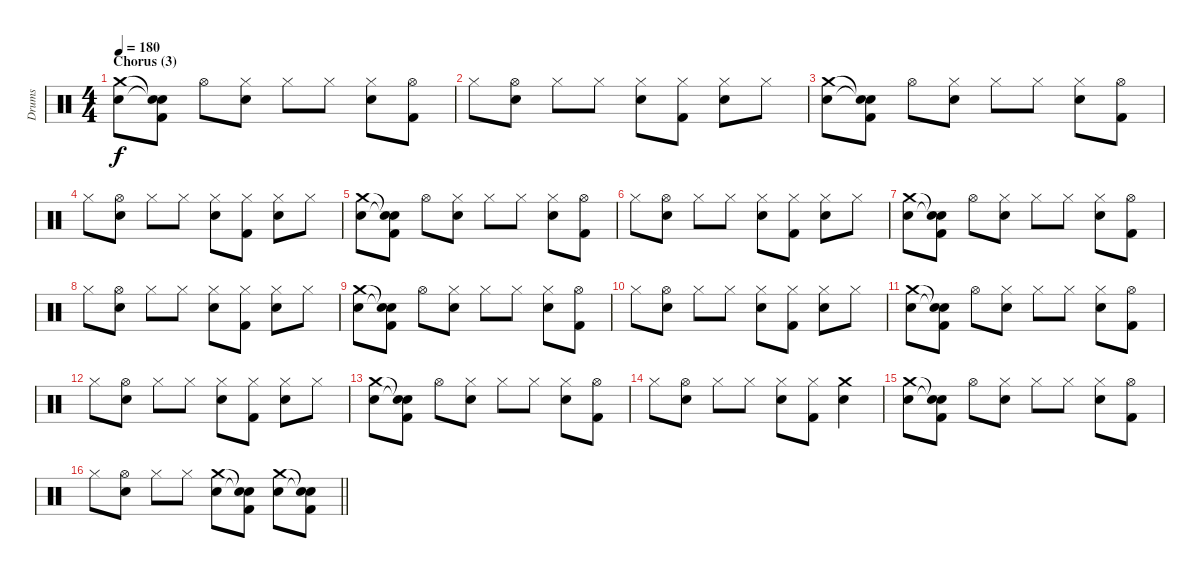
\track ("Drums" "Drums") {instrument percussion}
\staff {score}
\articulation defaults
\ts (4 4)
\section ("" "Chorus (3)")
\tempo 180
\clef neutral
\ks c
("Crash medium (hit)" "Electric Snare (hit)").8{dy f} ("Snare (hit)"{t} "Snare (hit)"{t} "Kick (hit) 2").8 "Hi-Hat (open)".8 ("Hi-Hat (closed)" "Electric Snare (hit)").8 "Hi-Hat (closed)".8 "Hi-Hat (closed)".8 ("Hi-Hat (closed)" "Electric Snare (hit)").8 ("Hi-Hat (open)" "Kick (hit) 2").8 |
"Hi-Hat (closed)".8 ("Hi-Hat (open)" "Electric Snare (hit)").8 "Hi-Hat (closed)".8 "Hi-Hat (closed)".8 ("Hi-Hat (closed)" "Electric Snare (hit)").8 ("Hi-Hat (closed)" "Kick (hit) 2").8 ("Hi-Hat (closed)" "Electric Snare (hit)").8 "Hi-Hat (closed)".8 |
("Crash medium (hit)" "Electric Snare (hit)").8 ("Snare (hit)"{t} "Snare (hit)"{t} "Kick (hit) 2").8 "Hi-Hat (open)".8 ("Hi-Hat (closed)" "Electric Snare (hit)").8 "Hi-Hat (closed)".8 "Hi-Hat (closed)".8 ("Hi-Hat (closed)" "Electric Snare (hit)").8 ("Hi-Hat (open)" "Kick (hit) 2").8 |
"Hi-Hat (closed)".8 ("Hi-Hat (open)" "Electric Snare (hit)").8 "Hi-Hat (closed)".8 "Hi-Hat (closed)".8 ("Hi-Hat (closed)" "Electric Snare (hit)").8 ("Hi-Hat (closed)" "Kick (hit) 2").8 ("Hi-Hat (closed)" "Electric Snare (hit)").8 "Hi-Hat (closed)".8 |
("Crash medium (hit)" "Electric Snare (hit)").8 ("Snare (hit)"{t} "Snare (hit)"{t} "Kick (hit) 2").8 "Hi-Hat (open)".8 ("Hi-Hat (closed)" "Electric Snare (hit)").8 "Hi-Hat (closed)".8 "Hi-Hat (closed)".8 ("Hi-Hat (closed)" "Electric Snare (hit)").8 ("Hi-Hat (open)" "Kick (hit) 2").8 |
"Hi-Hat (closed)".8 ("Hi-Hat (open)" "Electric Snare (hit)").8 "Hi-Hat (closed)".8 "Hi-Hat (closed)".8 ("Hi-Hat (closed)" "Electric Snare (hit)").8 ("Hi-Hat (closed)" "Kick (hit) 2").8 ("Hi-Hat (closed)" "Electric Snare (hit)").8 "Hi-Hat (closed)".8 |
("Crash medium (hit)" "Electric Snare (hit)").8 ("Snare (hit)"{t} "Snare (hit)"{t} "Kick (hit) 2").8 "Hi-Hat (open)".8 ("Hi-Hat (closed)" "Electric Snare (hit)").8 "Hi-Hat (closed)".8 "Hi-Hat (closed)".8 ("Hi-Hat (closed)" "Electric Snare (hit)").8 ("Hi-Hat (open)" "Kick (hit) 2").8 |
"Hi-Hat (closed)".8 ("Hi-Hat (open)" "Electric Snare (hit)").8 "Hi-Hat (closed)".8 "Hi-Hat (closed)".8 ("Hi-Hat (closed)" "Electric Snare (hit)").8 ("Hi-Hat (closed)" "Kick (hit) 2").8 ("Hi-Hat (closed)" "Electric Snare (hit)").8 "Hi-Hat (closed)".8 |
("Crash medium (hit)" "Electric Snare (hit)").8 ("Snare (hit)"{t} "Snare (hit)"{t} "Kick (hit) 2").8 "Hi-Hat (open)".8 ("Hi-Hat (closed)" "Electric Snare (hit)").8 "Hi-Hat (closed)".8 "Hi-Hat (closed)".8 ("Hi-Hat (closed)" "Electric Snare (hit)").8 ("Hi-Hat (open)" "Kick (hit) 2").8 |
"Hi-Hat (closed)".8 ("Hi-Hat (open)" "Electric Snare (hit)").8 "Hi-Hat (closed)".8 "Hi-Hat (closed)".8 ("Hi-Hat (closed)" "Electric Snare (hit)").8 ("Hi-Hat (closed)" "Kick (hit) 2").8 ("Hi-Hat (closed)" "Electric Snare (hit)").8 "Hi-Hat (closed)".8 |
("Crash medium (hit)" "Electric Snare (hit)").8 ("Snare (hit)"{t} "Snare (hit)"{t} "Kick (hit) 2").8 "Hi-Hat (open)".8 ("Hi-Hat (closed)" "Electric Snare (hit)").8 "Hi-Hat (closed)".8 "Hi-Hat (closed)".8 ("Hi-Hat (closed)" "Electric Snare (hit)").8 ("Hi-Hat (open)" "Kick (hit) 2").8 |
"Hi-Hat (closed)".8 ("Hi-Hat (open)" "Electric Snare (hit)").8 "Hi-Hat (closed)".8 "Hi-Hat (closed)".8 ("Hi-Hat (closed)" "Electric Snare (hit)").8 ("Hi-Hat (closed)" "Kick (hit) 2").8 ("Hi-Hat (closed)" "Electric Snare (hit)").8 "Hi-Hat (closed)".8 |
("Crash medium (hit)" "Electric Snare (hit)").8 ("Snare (hit)"{t} "Snare (hit)"{t} "Kick (hit) 2").8 "Hi-Hat (open)".8 ("Hi-Hat (closed)" "Electric Snare (hit)").8 "Hi-Hat (closed)".8 "Hi-Hat (closed)".8 ("Hi-Hat (closed)" "Electric Snare (hit)").8 ("Hi-Hat (open)" "Kick (hit) 2").8 |
"Hi-Hat (closed)".8 ("Hi-Hat (open)" "Electric Snare (hit)").8 "Hi-Hat (closed)".8 "Hi-Hat (closed)".8 ("Hi-Hat (closed)" "Electric Snare (hit)").8 ("Hi-Hat (closed)" "Kick (hit) 2").8 ("Crash medium (hit)" "Electric Snare (hit)").4 |
("Crash medium (hit)" "Electric Snare (hit)").8 ("Snare (hit)"{t} "Snare (hit)"{t} "Kick (hit) 2").8 "Hi-Hat (open)".8 ("Hi-Hat (closed)" "Electric Snare (hit)").8 "Hi-Hat (closed)".8 "Hi-Hat (closed)".8 ("Hi-Hat (closed)" "Electric Snare (hit)").8 ("Hi-Hat (open)" "Kick (hit) 2").8 |
\barLineRight lightlight "Hi-Hat (closed)".8
("Hi-Hat (open)" "Electric Snare (hit)").8 "Hi-Hat (closed)".8 "Hi-Hat (closed)".8 ("Crash medium (hit)" "Electric Snare (hit)").8 ("Snare (hit)"{t} "Snare (hit)"{t} "Kick (hit) 2").8 ("Crash medium (hit)" "Electric Snare (hit)").8 ("Snare (hit)"{t} "Snare (hit)"{t} "Kick (hit) 2").8
